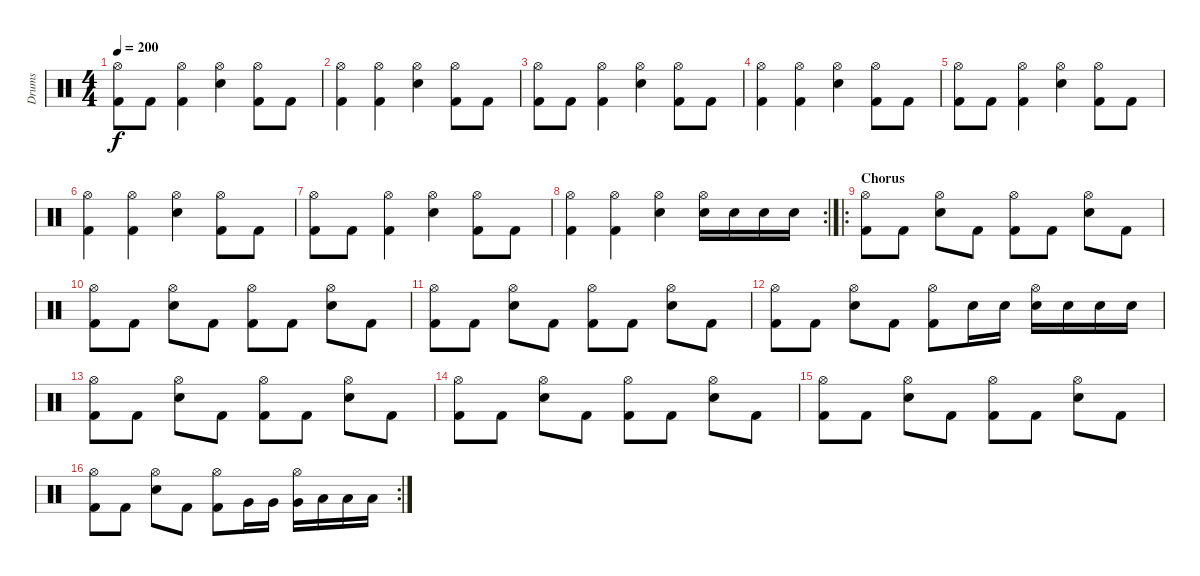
\track ("Drums" "Drums") {instrument percussion}
\staff {score}
\articulation defaults
\ts (4 4)
\tempo 200
\clef neutral
\ks c
("Hi-Hat (open)" "Kick (hit) 2").8{dy f} "Kick (hit) 2".8 ("Hi-Hat (open)" "Kick (hit) 2").4 ("Hi-Hat (open)" "Snare (hit) 2").4 ("Hi-Hat (open)" "Kick (hit) 2").8 "Kick (hit) 2".8 |
("Hi-Hat (open)" "Kick (hit) 2").4 ("Hi-Hat (open)" "Kick (hit) 2").4 ("Hi-Hat (open)" "Snare (hit) 2").4 ("Hi-Hat (open)" "Kick (hit) 2").8 "Kick (hit) 2".8 |
("Hi-Hat (open)" "Kick (hit) 2").8 "Kick (hit) 2".8 ("Hi-Hat (open)" "Kick (hit) 2").4 ("Hi-Hat (open)" "Snare (hit) 2").4 ("Hi-Hat (open)" "Kick (hit) 2").8 "Kick (hit) 2".8 |
("Hi-Hat (open)" "Kick (hit) 2").4 ("Hi-Hat (open)" "Kick (hit) 2").4 ("Hi-Hat (open)" "Snare (hit) 2").4 ("Hi-Hat (open)" "Kick (hit) 2").8 "Kick (hit) 2".8 |
("Hi-Hat (open)" "Kick (hit) 2").8 "Kick (hit) 2".8 ("Hi-Hat (open)" "Kick (hit) 2").4 ("Hi-Hat (open)" "Snare (hit) 2").4 ("Hi-Hat (open)" "Kick (hit) 2").8 "Kick (hit) 2".8 |
("Hi-Hat (open)" "Kick (hit) 2").4 ("Hi-Hat (open)" "Kick (hit) 2").4 ("Hi-Hat (open)" "Snare (hit) 2").4 ("Hi-Hat (open)" "Kick (hit) 2").8 "Kick (hit) 2".8 |
("Hi-Hat (open)" "Kick (hit) 2").8 "Kick (hit) 2".8 ("Hi-Hat (open)" "Kick (hit) 2").4 ("Hi-Hat (open)" "Snare (hit) 2").4 ("Hi-Hat (open)" "Kick (hit) 2").8 "Kick (hit) 2".8 |
\rc 2
("Hi-Hat (open)" "Kick (hit) 2").4 ("Hi-Hat (open)" "Kick (hit) 2").4 ("Hi-Hat (open)" "Snare (hit) 2").4 ("Hi-Hat (open)" "Snare (hit) 2").16 "Snare (hit) 2".16 "Snare (hit) 2".16 "Snare (hit) 2".16 |
\ro
\section ("" "Chorus")
("Hi-Hat (open)" "Kick (hit) 2").8 "Kick (hit) 2".8 ("Hi-Hat (open)" "Snare (hit) 2").8 "Kick (hit) 2".8 ("Hi-Hat (open)" "Kick (hit) 2").8 "Kick (hit) 2".8 ("Hi-Hat (open)" "Snare (hit) 2").8 "Kick (hit) 2".8 |
("Hi-Hat (open)" "Kick (hit) 2").8 "Kick (hit) 2".8 ("Hi-Hat (open)" "Snare (hit) 2").8 "Kick (hit) 2".8 ("Hi-Hat (open)" "Kick (hit) 2").8 "Kick (hit) 2".8 ("Hi-Hat (open)" "Snare (hit) 2").8 "Kick (hit) 2".8 |
("Hi-Hat (open)" "Kick (hit) 2").8 "Kick (hit) 2".8 ("Hi-Hat (open)" "Snare (hit) 2").8 "Kick (hit) 2".8 ("Hi-Hat (open)" "Kick (hit) 2").8 "Kick (hit) 2".8 ("Hi-Hat (open)" "Snare (hit) 2").8 "Kick (hit) 2".8 |
("Hi-Hat (open)" "Kick (hit) 2").8 "Kick (hit) 2".8 ("Hi-Hat (open)" "Snare (hit) 2").8 "Kick (hit) 2".8 ("Hi-Hat (open)" "Kick (hit) 2").8 "Snare (hit) 2".16 "Snare (hit) 2".16 ("Hi-Hat (open)" "Snare (hit) 2").16 "Snare (hit) 2".16 "Snare (hit) 2".16 "Snare (hit) 2".16 |
("Hi-Hat (open)" "Kick (hit) 2").8 "Kick (hit) 2".8 ("Hi-Hat (open)" "Snare (hit) 2").8 "Kick (hit) 2".8 ("Hi-Hat (open)" "Kick (hit) 2").8 "Kick (hit) 2".8 ("Hi-Hat (open)" "Snare (hit) 2").8 "Kick (hit) 2".8 |
("Hi-Hat (open)" "Kick (hit) 2").8 "Kick (hit) 2".8 ("Hi-Hat (open)" "Snare (hit) 2").8 "Kick (hit) 2".8 ("Hi-Hat (open)" "Kick (hit) 2").8 "Kick (hit) 2".8 ("Hi-Hat (open)" "Snare (hit) 2").8 "Kick (hit) 2".8 |
("Hi-Hat (open)" "Kick (hit) 2").8 "Kick (hit) 2".8 ("Hi-Hat (open)" "Snare (hit) 2").8 "Kick (hit) 2".8 ("Hi-Hat (open)" "Kick (hit) 2").8 "Kick (hit) 2".8 ("Hi-Hat (open)" "Snare (hit) 2").8 "Kick (hit) 2".8 |
\rc 2
("Hi-Hat (open)" "Kick (hit) 2").8 "Kick (hit) 2".8 ("Hi-Hat (open)" "Snare (hit) 2").8 "Kick (hit) 2".8 ("Hi-Hat (open)" "Kick (hit) 2").8 "Very Low Tom (hit)".16 "Very Low Tom (hit)".16 ("Hi-Hat (open)" "Very Low Tom (hit)").16 "Low Floor Tom (hit)".16 "Low Floor Tom (hit)".16 "Low Floor Tom (hit)".16
